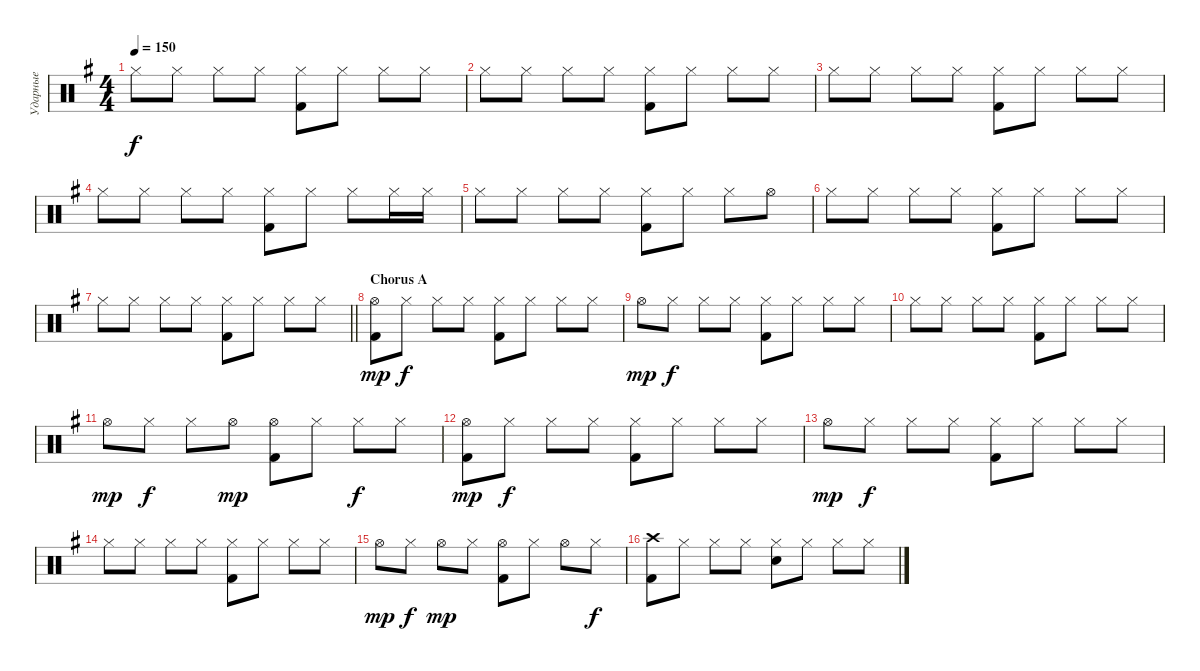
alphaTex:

\track ("Ударные" "Ударные") {instrument percussion}
\staff {score}
\articulation defaults
\ts (4 4)
\tempo 150
\clef neutral
\ks eminor "Hi-Hat (closed)".8{dy f} "Hi-Hat (closed)".8 "Hi-Hat (closed)".8 "Hi-Hat (closed)".8
("Hi-Hat (closed)" "Kick (hit) 2").8 "Hi-Hat (closed)".8 "Hi-Hat (closed)".8 "Hi-Hat (closed)".8 |
"Hi-Hat (closed)".8 "Hi-Hat (closed)".8 "Hi-Hat (closed)".8 "Hi-Hat (closed)".8 ("Hi-Hat (closed)" "Kick (hit) 2").8 "Hi-Hat (closed)".8 "Hi-Hat (closed)".8 "Hi-Hat (closed)".8 |
"Hi-Hat (closed)".8 "Hi-Hat (closed)".8 "Hi-Hat (closed)".8 "Hi-Hat (closed)".8 ("Hi-Hat (closed)" "Kick (hit) 2").8 "Hi-Hat (closed)".8 "Hi-Hat (closed)".8 "Hi-Hat (closed)".8 |
"Hi-Hat (closed)".8 "Hi-Hat (closed)".8 "Hi-Hat (closed)".8 "Hi-Hat (closed)".8 ("Hi-Hat (closed)" "Kick (hit) 2").8 "Hi-Hat (closed)".8 "Hi-Hat (closed)".8 "Hi-Hat (closed)".16 "Hi-Hat (closed)".16 |
"Hi-Hat (closed)".8 "Hi-Hat (closed)".8 "Hi-Hat (closed)".8 "Hi-Hat (closed)".8 ("Hi-Hat (closed)" "Kick (hit) 2").8 "Hi-Hat (closed)".8 "Hi-Hat (closed)".8 "Hi-Hat (open)".8 |
"Hi-Hat (closed)".8 "Hi-Hat (closed)".8 "Hi-Hat (closed)".8 "Hi-Hat (closed)".8 ("Hi-Hat (closed)" "Kick (hit) 2").8 "Hi-Hat (closed)".8 "Hi-Hat (closed)".8 "Hi-Hat (closed)".8 |
\barLineRight lightlight "Hi-Hat (closed)".8 "Hi-Hat (closed)".8 "Hi-Hat (closed)".8 "Hi-Hat (closed)".8
("Hi-Hat (closed)" "Kick (hit) 2").8 "Hi-Hat (closed)".8 "Hi-Hat (closed)".8 "Hi-Hat (closed)".8 |
\section ("" "Chorus A")
("Kick (hit) 2" "Hi-Hat (open)").8{dy mp} "Hi-Hat (closed)".8{dy f} "Hi-Hat (closed)".8 "Hi-Hat (closed)".8 ("Hi-Hat (closed)" "Kick (hit) 2").8 "Hi-Hat (closed)".8 "Hi-Hat (closed)".8 "Hi-Hat (closed)".8 |
"Hi-Hat (open)".8{dy mp} "Hi-Hat (closed)".8{dy f} "Hi-Hat (closed)".8 "Hi-Hat (closed)".8 ("Hi-Hat (closed)" "Kick (hit) 2").8 "Hi-Hat (closed)".8 "Hi-Hat (closed)".8 "Hi-Hat (closed)".8 |
"Hi-Hat (closed)".8 "Hi-Hat (closed)".8 "Hi-Hat (closed)".8 "Hi-Hat (closed)".8 ("Hi-Hat (closed)" "Kick (hit) 2").8 "Hi-Hat (closed)".8 "Hi-Hat (closed)".8 "Hi-Hat (closed)".8 |
"Hi-Hat (open)".8{dy mp} "Hi-Hat (closed)".8{dy f} "Hi-Hat (closed)".8 "Hi-Hat (open)".8{dy mp} ("Hi-Hat (open)" "Kick (hit) 2").8 "Hi-Hat (closed)".8 "Hi-Hat (closed)".8{dy f} "Hi-Hat (closed)".8 |
("Kick (hit) 2" "Hi-Hat (open)").8{dy mp} "Hi-Hat (closed)".8{dy f} "Hi-Hat (closed)".8 "Hi-Hat (closed)".8 ("Hi-Hat (closed)" "Kick (hit) 2").8 "Hi-Hat (closed)".8 "Hi-Hat (closed)".8 "Hi-Hat (closed)".8 |
"Hi-Hat (open)".8{dy mp} "Hi-Hat (closed)".8{dy f} "Hi-Hat (closed)".8 "Hi-Hat (closed)".8 ("Hi-Hat (closed)" "Kick (hit) 2").8 "Hi-Hat (closed)".8 "Hi-Hat (closed)".8 "Hi-Hat (closed)".8 |
"Hi-Hat (closed)".8 "Hi-Hat (closed)".8 "Hi-Hat (closed)".8 "Hi-Hat (closed)".8 ("Hi-Hat (closed)" "Kick (hit) 2").8 "Hi-Hat (closed)".8 "Hi-Hat (closed)".8 "Hi-Hat (closed)".8 |
"Hi-Hat (open)".8{dy mp} "Hi-Hat (closed)".8{dy f} "Hi-Hat (open)".8{dy mp} "Hi-Hat (closed)".8 ("Hi-Hat (open)" "Kick (hit) 2").8 "Hi-Hat (closed)".8 "Hi-Hat (open)".8 "Hi-Hat (closed)".8{dy f} |
("Kick (hit) 2" "Crash high (hit)").8 "Hi-Hat (closed)".8 "Hi-Hat (closed)".8 "Hi-Hat (closed)".8 ("Hi-Hat (closed)" "Snare (hit) 2").8 "Hi-Hat (closed)".8 "Hi-Hat (closed)".8 "Hi-Hat (closed)".8
